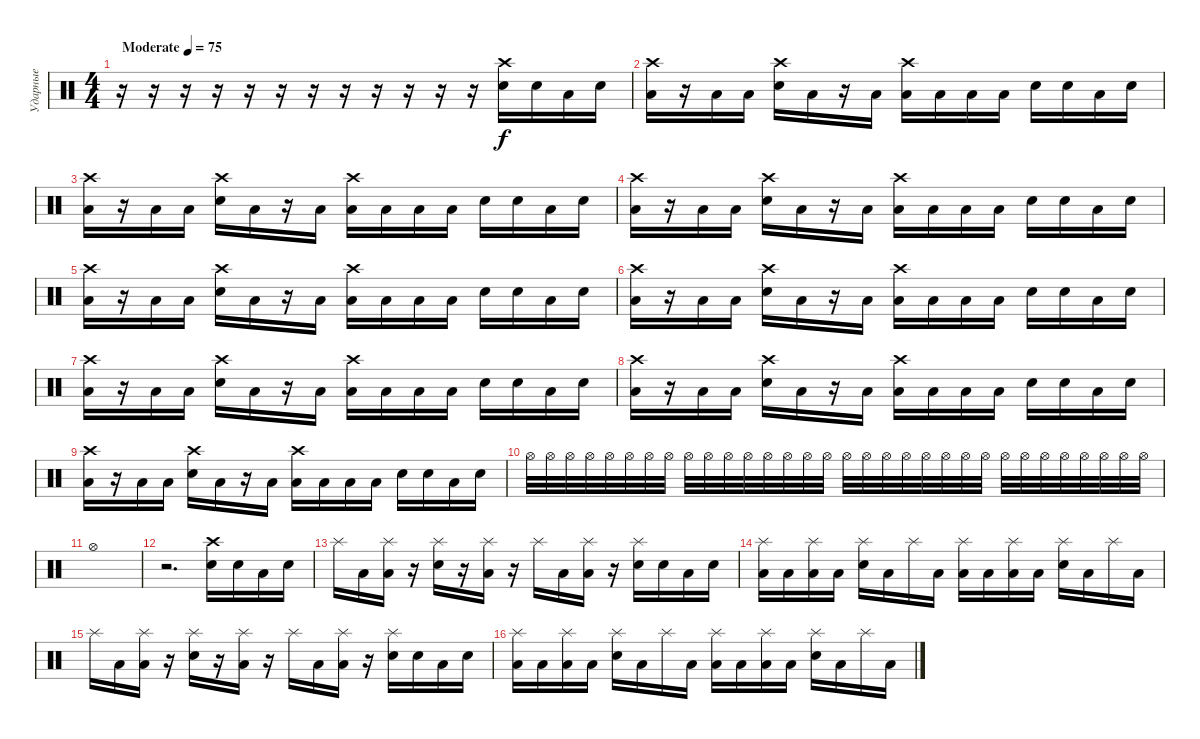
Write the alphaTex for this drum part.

\track ("Ударные" "Ударные") {instrument percussion}
\staff {score}
\articulation defaults
\ts (4 4)
\tempo (75 "Moderate")
\clef neutral
\ks c
r.16{dy f} r.16 r.16 r.16 r.16 r.16 r.16 r.16 r.16 r.16 r.16 r.16 ("Crash high (hit)" "Electric Snare (hit)").16 "Electric Snare (hit)".16 "Low Floor Tom (hit)".16 "Electric Snare (hit)".16 |
("Crash high (hit)" "Low Floor Tom (hit)").16 r.16 "Low Floor Tom (hit)".16 "Low Floor Tom (hit)".16 ("Crash high (hit)" "Electric Snare (hit)").16 "Low Floor Tom (hit)".16 r.16 "Low Floor Tom (hit)".16 ("Crash high (hit)" "Low Floor Tom (hit)").16 "Low Floor Tom (hit)".16 "Low Floor Tom (hit)".16 "Low Floor Tom (hit)".16 "Electric Snare (hit)".16 "Electric Snare (hit)".16 "Low Floor Tom (hit)".16 "Electric Snare (hit)".16 |
("Crash high (hit)" "Low Floor Tom (hit)").16 r.16 "Low Floor Tom (hit)".16 "Low Floor Tom (hit)".16 ("Crash high (hit)" "Electric Snare (hit)").16 "Low Floor Tom (hit)".16 r.16 "Low Floor Tom (hit)".16 ("Crash high (hit)" "Low Floor Tom (hit)").16 "Low Floor Tom (hit)".16 "Low Floor Tom (hit)".16 "Low Floor Tom (hit)".16 "Electric Snare (hit)".16 "Electric Snare (hit)".16 "Low Floor Tom (hit)".16 "Electric Snare (hit)".16 |
("Crash high (hit)" "Low Floor Tom (hit)").16 r.16 "Low Floor Tom (hit)".16 "Low Floor Tom (hit)".16 ("Crash high (hit)" "Electric Snare (hit)").16 "Low Floor Tom (hit)".16 r.16 "Low Floor Tom (hit)".16 ("Crash high (hit)" "Low Floor Tom (hit)").16 "Low Floor Tom (hit)".16 "Low Floor Tom (hit)".16 "Low Floor Tom (hit)".16 "Electric Snare (hit)".16 "Electric Snare (hit)".16 "Low Floor Tom (hit)".16 "Electric Snare (hit)".16 |
("Crash high (hit)" "Low Floor Tom (hit)").16 r.16 "Low Floor Tom (hit)".16 "Low Floor Tom (hit)".16 ("Crash high (hit)" "Electric Snare (hit)").16 "Low Floor Tom (hit)".16 r.16 "Low Floor Tom (hit)".16 ("Crash high (hit)" "Low Floor Tom (hit)").16 "Low Floor Tom (hit)".16 "Low Floor Tom (hit)".16 "Low Floor Tom (hit)".16 "Electric Snare (hit)".16 "Electric Snare (hit)".16 "Low Floor Tom (hit)".16 "Electric Snare (hit)".16 |
("Crash high (hit)" "Low Floor Tom (hit)").16 r.16 "Low Floor Tom (hit)".16 "Low Floor Tom (hit)".16 ("Crash high (hit)" "Electric Snare (hit)").16 "Low Floor Tom (hit)".16 r.16 "Low Floor Tom (hit)".16 ("Crash high (hit)" "Low Floor Tom (hit)").16 "Low Floor Tom (hit)".16 "Low Floor Tom (hit)".16 "Low Floor Tom (hit)".16 "Electric Snare (hit)".16 "Electric Snare (hit)".16 "Low Floor Tom (hit)".16 "Electric Snare (hit)".16 |
("Crash high (hit)" "Low Floor Tom (hit)").16 r.16 "Low Floor Tom (hit)".16 "Low Floor Tom (hit)".16 ("Crash high (hit)" "Electric Snare (hit)").16 "Low Floor Tom (hit)".16 r.16 "Low Floor Tom (hit)".16 ("Crash high (hit)" "Low Floor Tom (hit)").16 "Low Floor Tom (hit)".16 "Low Floor Tom (hit)".16 "Low Floor Tom (hit)".16 "Electric Snare (hit)".16 "Electric Snare (hit)".16 "Low Floor Tom (hit)".16 "Electric Snare (hit)".16 |
("Crash high (hit)" "Low Floor Tom (hit)").16 r.16 "Low Floor Tom (hit)".16 "Low Floor Tom (hit)".16 ("Crash high (hit)" "Electric Snare (hit)").16 "Low Floor Tom (hit)".16 r.16 "Low Floor Tom (hit)".16 ("Crash high (hit)" "Low Floor Tom (hit)").16 "Low Floor Tom (hit)".16 "Low Floor Tom (hit)".16 "Low Floor Tom (hit)".16 "Electric Snare (hit)".16 "Electric Snare (hit)".16 "Low Floor Tom (hit)".16 "Electric Snare (hit)".16 |
("Crash high (hit)" "Low Floor Tom (hit)").16 r.16 "Low Floor Tom (hit)".16 "Low Floor Tom (hit)".16 ("Crash high (hit)" "Electric Snare (hit)").16 "Low Floor Tom (hit)".16 r.16 "Low Floor Tom (hit)".16 ("Crash high (hit)" "Low Floor Tom (hit)").16 "Low Floor Tom (hit)".16 "Low Floor Tom (hit)".16 "Low Floor Tom (hit)".16 "Electric Snare (hit)".16 "Electric Snare (hit)".16 "Low Floor Tom (hit)".16 "Electric Snare (hit)".16 |
"Hi-Hat (open)".32 "Hi-Hat (open)".32 "Hi-Hat (open)".32 "Hi-Hat (open)".32 "Hi-Hat (open)".32 "Hi-Hat (open)".32 "Hi-Hat (open)".32 "Hi-Hat (open)".32 "Hi-Hat (open)".32 "Hi-Hat (open)".32 "Hi-Hat (open)".32 "Hi-Hat (open)".32 "Hi-Hat (open)".32 "Hi-Hat (open)".32 "Hi-Hat (open)".32 "Hi-Hat (open)".32 "Hi-Hat (open)".32 "Hi-Hat (open)".32 "Hi-Hat (open)".32 "Hi-Hat (open)".32 "Hi-Hat (open)".32 "Hi-Hat (open)".32 "Hi-Hat (open)".32 "Hi-Hat (open)".32 "Hi-Hat (open)".32 "Hi-Hat (open)".32 "Hi-Hat (open)".32 "Hi-Hat (open)".32 "Hi-Hat (open)".32 "Hi-Hat (open)".32 "Hi-Hat (open)".32 "Hi-Hat (open)".32 |
"Hi-Hat (open)".1 |
r.2{d} ("Crash high (hit)" "Electric Snare (hit)").16 "Electric Snare (hit)".16 "Low Floor Tom (hit)".16 "Electric Snare (hit)".16 |
"Splash (hit)".16 "Low Floor Tom (hit)".16 ("Splash (hit)" "Low Floor Tom (hit)").16 r.16 ("Splash (hit)" "Electric Snare (hit)").16 r.16 ("Splash (hit)" "Low Floor Tom (hit)").16 r.16 "Splash (hit)".16 "Low Floor Tom (hit)".16 ("Splash (hit)" "Low Floor Tom (hit)").16 r.16 ("Splash (hit)" "Electric Snare (hit)").16 "Electric Snare (hit)".16 "Low Floor Tom (hit)".16 "Electric Snare (hit)".16 |
("Splash (hit)" "Low Floor Tom (hit)").16 "Low Floor Tom (hit)".16 ("Splash (hit)" "Low Floor Tom (hit)").16 "Low Floor Tom (hit)".16 ("Splash (hit)" "Electric Snare (hit)").16 "Low Floor Tom (hit)".16 "Splash (hit)".16 "Low Floor Tom (hit)".16 ("Splash (hit)" "Low Floor Tom (hit)").16 "Low Floor Tom (hit)".16 ("Splash (hit)" "Low Floor Tom (hit)").16 "Low Floor Tom (hit)".16 ("Splash (hit)" "Electric Snare (hit)").16 "Low Floor Tom (hit)".16 "Splash (hit)".16 "Low Floor Tom (hit)".16 |
"Splash (hit)".16 "Low Floor Tom (hit)".16 ("Splash (hit)" "Low Floor Tom (hit)").16 r.16 ("Splash (hit)" "Electric Snare (hit)").16 r.16 ("Splash (hit)" "Low Floor Tom (hit)").16 r.16 "Splash (hit)".16 "Low Floor Tom (hit)".16 ("Splash (hit)" "Low Floor Tom (hit)").16 r.16 ("Splash (hit)" "Electric Snare (hit)").16 "Electric Snare (hit)".16 "Low Floor Tom (hit)".16 "Electric Snare (hit)".16 |
("Splash (hit)" "Low Floor Tom (hit)").16 "Low Floor Tom (hit)".16 ("Splash (hit)" "Low Floor Tom (hit)").16 "Low Floor Tom (hit)".16 ("Splash (hit)" "Electric Snare (hit)").16 "Low Floor Tom (hit)".16 "Splash (hit)".16 "Low Floor Tom (hit)".16 ("Splash (hit)" "Low Floor Tom (hit)").16 "Low Floor Tom (hit)".16 ("Splash (hit)" "Low Floor Tom (hit)").16 "Low Floor Tom (hit)".16 ("Splash (hit)" "Electric Snare (hit)").16 "Low Floor Tom (hit)".16 "Splash (hit)".16 "Low Floor Tom (hit)".16
